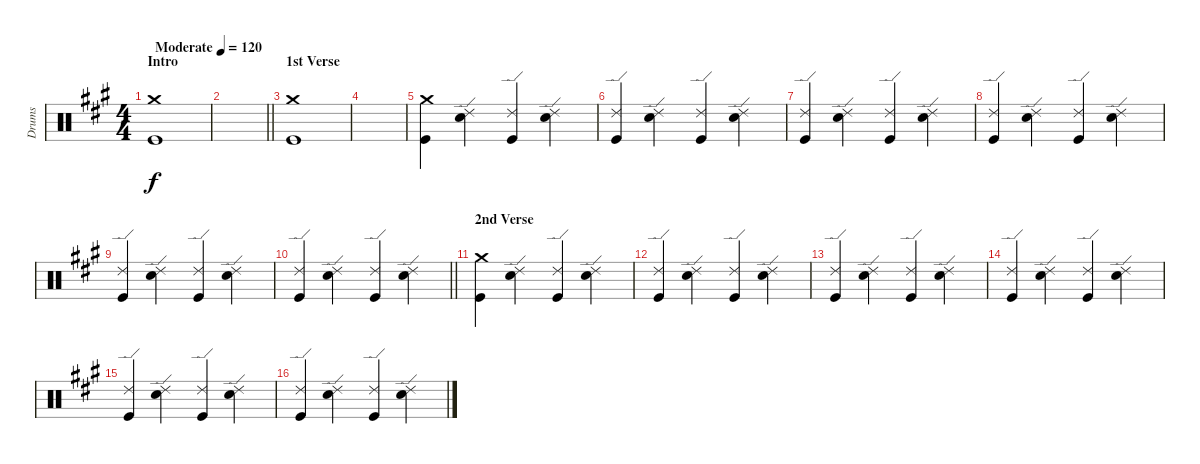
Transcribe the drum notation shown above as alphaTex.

\track ("Drums" "Drums") {instrument percussion}
\staff {score}
\articulation defaults
\ts (4 4)
\section ("" "Intro")
\tempo (120 "Moderate")
\clef neutral
\ks f#minor
("Crash medium (hit)" "Kick (hit)").1{dy f} |
\barLineRight lightlight
|
\section ("" "1st Verse")
("Crash medium (hit)" "Kick (hit)").1 |
|
("Crash medium (hit)" "Kick (hit)").4 ("Ride (edge) 2" "Electric Snare (hit)").4 ("Ride (edge) 2" "Kick (hit)").4 ("Ride (edge) 2" "Electric Snare (hit)").4 |
("Ride (edge) 2" "Kick (hit)").4 ("Ride (edge) 2" "Electric Snare (hit)").4 ("Ride (edge) 2" "Kick (hit)").4 ("Ride (edge) 2" "Electric Snare (hit)").4 |
("Ride (edge) 2" "Kick (hit)").4 ("Ride (edge) 2" "Electric Snare (hit)").4 ("Ride (edge) 2" "Kick (hit)").4 ("Ride (edge) 2" "Electric Snare (hit)").4 |
("Ride (edge) 2" "Kick (hit)").4 ("Ride (edge) 2" "Electric Snare (hit)").4 ("Ride (edge) 2" "Kick (hit)").4 ("Ride (edge) 2" "Electric Snare (hit)").4 |
("Ride (edge) 2" "Kick (hit)").4 ("Ride (edge) 2" "Electric Snare (hit)").4 ("Ride (edge) 2" "Kick (hit)").4 ("Ride (edge) 2" "Electric Snare (hit)").4 |
\barLineRight lightlight
("Ride (edge) 2" "Kick (hit)").4 ("Ride (edge) 2" "Electric Snare (hit)").4 ("Ride (edge) 2" "Kick (hit)").4 ("Ride (edge) 2" "Electric Snare (hit)").4 |
\section ("" "2nd Verse")
("Crash medium (hit)" "Kick (hit)").4 ("Ride (edge) 2" "Electric Snare (hit)").4 ("Ride (edge) 2" "Kick (hit)").4 ("Ride (edge) 2" "Electric Snare (hit)").4 |
("Ride (edge) 2" "Kick (hit)").4 ("Ride (edge) 2" "Electric Snare (hit)").4 ("Ride (edge) 2" "Kick (hit)").4 ("Ride (edge) 2" "Electric Snare (hit)").4 |
("Ride (edge) 2" "Kick (hit)").4 ("Ride (edge) 2" "Electric Snare (hit)").4 ("Ride (edge) 2" "Kick (hit)").4 ("Ride (edge) 2" "Electric Snare (hit)").4 |
("Ride (edge) 2" "Kick (hit)").4 ("Ride (edge) 2" "Electric Snare (hit)").4 ("Ride (edge) 2" "Kick (hit)").4 ("Ride (edge) 2" "Electric Snare (hit)").4 |
("Ride (edge) 2" "Kick (hit)").4 ("Ride (edge) 2" "Electric Snare (hit)").4 ("Ride (edge) 2" "Kick (hit)").4 ("Ride (edge) 2" "Electric Snare (hit)").4 |
("Ride (edge) 2" "Kick (hit)").4 ("Ride (edge) 2" "Electric Snare (hit)").4 ("Ride (edge) 2" "Kick (hit)").4 ("Ride (edge) 2" "Electric Snare (hit)").4
